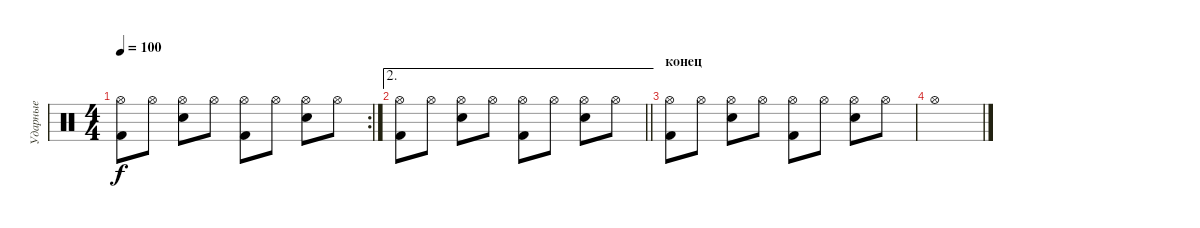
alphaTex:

\track ("Ударные" "Ударные") {instrument percussion}
\staff {score}
\articulation defaults
\rc 2
\ts (4 4)
\tempo 100
\clef neutral
\ks c
("Hi-Hat (open)" "Kick (hit) 2").8{dy f} "Hi-Hat (open)".8 ("Hi-Hat (open)" "Snare (hit) 2").8 "Hi-Hat (open)".8 ("Hi-Hat (open)" "Kick (hit) 2").8 "Hi-Hat (open)".8 ("Hi-Hat (open)" "Snare (hit) 2").8 "Hi-Hat (open)".8 |
\ae 2
\barLineRight lightlight
("Hi-Hat (open)" "Kick (hit) 2").8 "Hi-Hat (open)".8 ("Hi-Hat (open)" "Snare (hit) 2").8 "Hi-Hat (open)".8 ("Hi-Hat (open)" "Kick (hit) 2").8 "Hi-Hat (open)".8 ("Hi-Hat (open)" "Snare (hit) 2").8 "Hi-Hat (open)".8 |
\section ("" "конец")
("Hi-Hat (open)" "Kick (hit) 2").8 "Hi-Hat (open)".8 ("Hi-Hat (open)" "Snare (hit) 2").8 "Hi-Hat (open)".8 ("Hi-Hat (open)" "Kick (hit) 2").8 "Hi-Hat (open)".8 ("Hi-Hat (open)" "Snare (hit) 2").8 "Hi-Hat (open)".8 |
"Hi-Hat (open)".1
